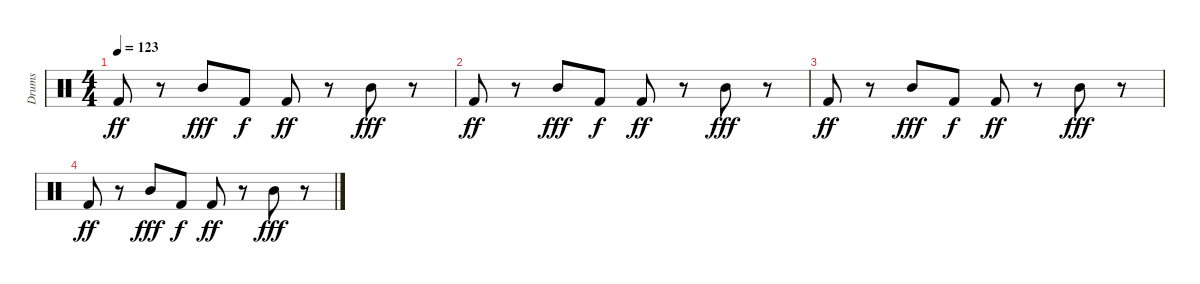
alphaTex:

\track ("Drums" "Drums") {instrument percussion}
\staff {score}
\articulation defaults
\ts (4 4)
\tempo 123
\clef neutral
\ks c "Kick (hit) 2".8{dy ff volume 14}
r.8 "Mid Tom (hit)".8{dy fff volume 13} "Kick (hit) 2".8{dy f volume 13} "Kick (hit) 2".8{dy ff volume 12} r.8 "Mid Tom (hit)".8{dy fff volume 12} r.8 |
"Kick (hit) 2".8{dy ff volume 11} r.8 "Mid Tom (hit)".8{dy fff volume 10} "Kick (hit) 2".8{dy f volume 9} "Kick (hit) 2".8{dy ff volume 9} r.8 "Mid Tom (hit)".8{dy fff volume 8} r.8 |
"Kick (hit) 2".8{dy ff volume 7} r.8 "Mid Tom (hit)".8{dy fff volume 6} "Kick (hit) 2".8{dy f volume 6} "Kick (hit) 2".8{dy ff volume 5} r.8 "Mid Tom (hit)".8{dy fff volume 4} r.8 |
"Kick (hit) 2".8{dy ff volume 4} r.8 "Mid Tom (hit)".8{dy fff volume 2} "Kick (hit) 2".8{dy f volume 2} "Kick (hit) 2".8{dy ff volume 2} r.8 "Mid Tom (hit)".8{dy fff volume 1} r.8
